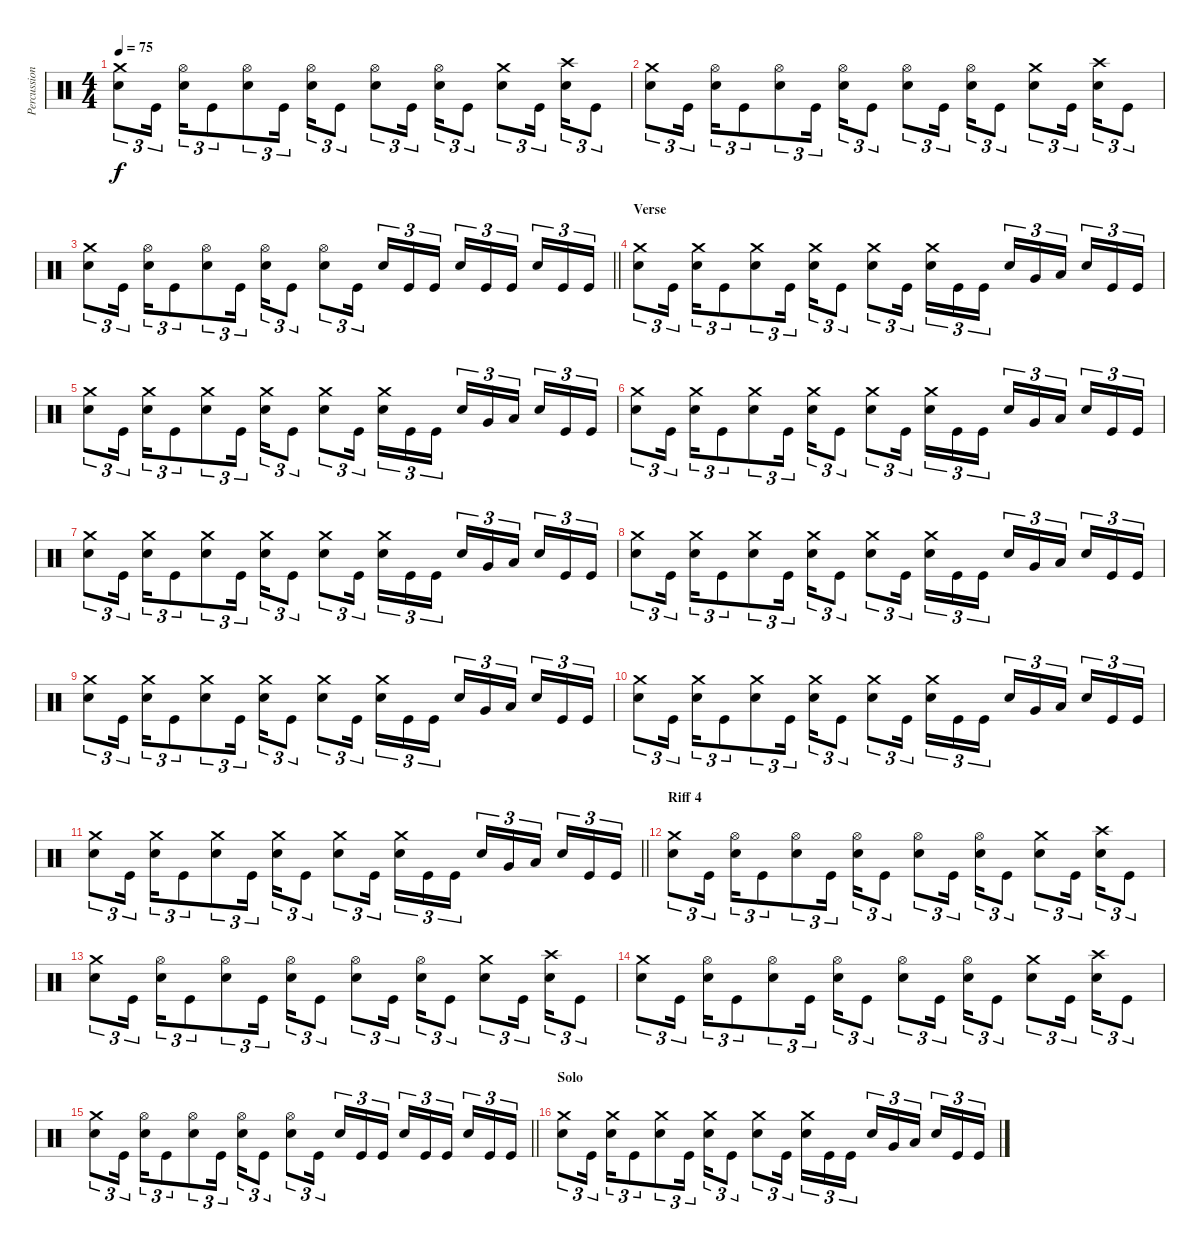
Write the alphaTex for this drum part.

\track ("Percussion" "Percussion") {instrument percussion}
\staff {score}
\articulation defaults
\ts (4 4)
\tempo 75
\clef neutral
\ks c
("Crash medium (hit)" "Snare (hit) 2").8{tu (3 2) dy f} "Kick (hit)".16{tu (3 2) beam splitsecondary} ("Hi-Hat (open)" "Snare (hit) 2").16{tu (3 2)} "Kick (hit)".8{tu (3 2) beam merge} ("Hi-Hat (open)" "Snare (hit) 2").8{tu (3 2)} "Kick (hit)".16{tu (3 2) beam splitsecondary} ("Hi-Hat (open)" "Snare (hit) 2").16{tu (3 2) beam merge} "Kick (hit)".8{tu (3 2)} ("Hi-Hat (open)" "Snare (hit) 2").8{tu (3 2)} "Kick (hit)".16{tu (3 2) beam splitsecondary} ("Hi-Hat (open)" "Snare (hit) 2").16{tu (3 2)} "Kick (hit)".8{tu (3 2)} ("Crash medium (hit)" "Snare (hit) 2").8{tu (3 2)} "Kick (hit)".16{tu (3 2) beam splitsecondary} ("Crash high (hit)" "Snare (hit) 2").16{tu (3 2)} "Kick (hit)".8{tu (3 2)} |
("Crash medium (hit)" "Snare (hit) 2").8{tu (3 2)} "Kick (hit)".16{tu (3 2) beam splitsecondary} ("Hi-Hat (open)" "Snare (hit) 2").16{tu (3 2)} "Kick (hit)".8{tu (3 2) beam merge} ("Hi-Hat (open)" "Snare (hit) 2").8{tu (3 2)} "Kick (hit)".16{tu (3 2) beam splitsecondary} ("Hi-Hat (open)" "Snare (hit) 2").16{tu (3 2) beam merge} "Kick (hit)".8{tu (3 2)} ("Hi-Hat (open)" "Snare (hit) 2").8{tu (3 2)} "Kick (hit)".16{tu (3 2) beam splitsecondary} ("Hi-Hat (open)" "Snare (hit) 2").16{tu (3 2)} "Kick (hit)".8{tu (3 2)} ("Crash medium (hit)" "Snare (hit) 2").8{tu (3 2)} "Kick (hit)".16{tu (3 2) beam splitsecondary} ("Crash high (hit)" "Snare (hit) 2").16{tu (3 2)} "Kick (hit)".8{tu (3 2)} |
\barLineRight lightlight
("Crash medium (hit)" "Snare (hit) 2").8{tu (3 2)} "Kick (hit)".16{tu (3 2) beam splitsecondary} ("Hi-Hat (open)" "Snare (hit) 2").16{tu (3 2)} "Kick (hit)".8{tu (3 2) beam merge} ("Hi-Hat (open)" "Snare (hit) 2").8{tu (3 2)} "Kick (hit)".16{tu (3 2) beam splitsecondary} ("Hi-Hat (open)" "Snare (hit) 2").16{tu (3 2) beam merge} "Kick (hit)".8{tu (3 2)} ("Hi-Hat (open)" "Snare (hit) 2").8{tu (3 2)} "Kick (hit)".16{tu (3 2) beam splitsecondary} "Snare (hit) 2".16{tu (3 2)} "Kick (hit)".16{tu (3 2)} "Kick (hit)".16{tu (3 2)} "Snare (hit) 2".16{tu (3 2)} "Kick (hit)".16{tu (3 2)} "Kick (hit)".16{tu (3 2) beam splitsecondary} "Snare (hit) 2".16{tu (3 2)} "Kick (hit)".16{tu (3 2)} "Kick (hit)".16{tu (3 2)} |
\section ("" "Verse")
("Crash medium (hit)" "Snare (hit) 2").8{tu (3 2)} "Kick (hit)".16{tu (3 2) beam splitsecondary} ("Crash medium (hit)" "Snare (hit) 2").16{tu (3 2)} "Kick (hit)".8{tu (3 2) beam merge} ("Crash medium (hit)" "Snare (hit) 2").8{tu (3 2)} "Kick (hit)".16{tu (3 2) beam splitsecondary} ("Crash medium (hit)" "Snare (hit) 2").16{tu (3 2) beam merge} "Kick (hit)".8{tu (3 2)} ("Crash medium (hit)" "Snare (hit) 2").8{tu (3 2)} "Kick (hit)".16{tu (3 2) beam splitsecondary} ("Crash medium (hit)" "Snare (hit) 2").16{tu (3 2)} "Kick (hit)".16{tu (3 2)} "Kick (hit)".16{tu (3 2)} "Snare (hit) 2".16{tu (3 2)} "Very Low Tom (hit)".16{tu (3 2)} "Low Floor Tom (hit)".16{tu (3 2) beam splitsecondary} "Snare (hit) 2".16{tu (3 2)} "Kick (hit)".16{tu (3 2)} "Kick (hit)".16{tu (3 2)} |
("Crash medium (hit)" "Snare (hit) 2").8{tu (3 2)} "Kick (hit)".16{tu (3 2) beam splitsecondary} ("Crash medium (hit)" "Snare (hit) 2").16{tu (3 2)} "Kick (hit)".8{tu (3 2) beam merge} ("Crash medium (hit)" "Snare (hit) 2").8{tu (3 2)} "Kick (hit)".16{tu (3 2) beam splitsecondary} ("Crash medium (hit)" "Snare (hit) 2").16{tu (3 2) beam merge} "Kick (hit)".8{tu (3 2)} ("Crash medium (hit)" "Snare (hit) 2").8{tu (3 2)} "Kick (hit)".16{tu (3 2) beam splitsecondary} ("Crash medium (hit)" "Snare (hit) 2").16{tu (3 2)} "Kick (hit)".16{tu (3 2)} "Kick (hit)".16{tu (3 2)} "Snare (hit) 2".16{tu (3 2)} "Very Low Tom (hit)".16{tu (3 2)} "Low Floor Tom (hit)".16{tu (3 2) beam splitsecondary} "Snare (hit) 2".16{tu (3 2)} "Kick (hit)".16{tu (3 2)} "Kick (hit)".16{tu (3 2)} |
("Crash medium (hit)" "Snare (hit) 2").8{tu (3 2)} "Kick (hit)".16{tu (3 2) beam splitsecondary} ("Crash medium (hit)" "Snare (hit) 2").16{tu (3 2)} "Kick (hit)".8{tu (3 2) beam merge} ("Crash medium (hit)" "Snare (hit) 2").8{tu (3 2)} "Kick (hit)".16{tu (3 2) beam splitsecondary} ("Crash medium (hit)" "Snare (hit) 2").16{tu (3 2) beam merge} "Kick (hit)".8{tu (3 2)} ("Crash medium (hit)" "Snare (hit) 2").8{tu (3 2)} "Kick (hit)".16{tu (3 2) beam splitsecondary} ("Crash medium (hit)" "Snare (hit) 2").16{tu (3 2)} "Kick (hit)".16{tu (3 2)} "Kick (hit)".16{tu (3 2)} "Snare (hit) 2".16{tu (3 2)} "Very Low Tom (hit)".16{tu (3 2)} "Low Floor Tom (hit)".16{tu (3 2) beam splitsecondary} "Snare (hit) 2".16{tu (3 2)} "Kick (hit)".16{tu (3 2)} "Kick (hit)".16{tu (3 2)} |
("Crash medium (hit)" "Snare (hit) 2").8{tu (3 2)} "Kick (hit)".16{tu (3 2) beam splitsecondary} ("Crash medium (hit)" "Snare (hit) 2").16{tu (3 2)} "Kick (hit)".8{tu (3 2) beam merge} ("Crash medium (hit)" "Snare (hit) 2").8{tu (3 2)} "Kick (hit)".16{tu (3 2) beam splitsecondary} ("Crash medium (hit)" "Snare (hit) 2").16{tu (3 2) beam merge} "Kick (hit)".8{tu (3 2)} ("Crash medium (hit)" "Snare (hit) 2").8{tu (3 2)} "Kick (hit)".16{tu (3 2) beam splitsecondary} ("Crash medium (hit)" "Snare (hit) 2").16{tu (3 2)} "Kick (hit)".16{tu (3 2)} "Kick (hit)".16{tu (3 2)} "Snare (hit) 2".16{tu (3 2)} "Very Low Tom (hit)".16{tu (3 2)} "Low Floor Tom (hit)".16{tu (3 2) beam splitsecondary} "Snare (hit) 2".16{tu (3 2)} "Kick (hit)".16{tu (3 2)} "Kick (hit)".16{tu (3 2)} |
("Crash medium (hit)" "Snare (hit) 2").8{tu (3 2)} "Kick (hit)".16{tu (3 2) beam splitsecondary} ("Crash medium (hit)" "Snare (hit) 2").16{tu (3 2)} "Kick (hit)".8{tu (3 2) beam merge} ("Crash medium (hit)" "Snare (hit) 2").8{tu (3 2)} "Kick (hit)".16{tu (3 2) beam splitsecondary} ("Crash medium (hit)" "Snare (hit) 2").16{tu (3 2) beam merge} "Kick (hit)".8{tu (3 2)} ("Crash medium (hit)" "Snare (hit) 2").8{tu (3 2)} "Kick (hit)".16{tu (3 2) beam splitsecondary} ("Crash medium (hit)" "Snare (hit) 2").16{tu (3 2)} "Kick (hit)".16{tu (3 2)} "Kick (hit)".16{tu (3 2)} "Snare (hit) 2".16{tu (3 2)} "Very Low Tom (hit)".16{tu (3 2)} "Low Floor Tom (hit)".16{tu (3 2) beam splitsecondary} "Snare (hit) 2".16{tu (3 2)} "Kick (hit)".16{tu (3 2)} "Kick (hit)".16{tu (3 2)} |
("Crash medium (hit)" "Snare (hit) 2").8{tu (3 2)} "Kick (hit)".16{tu (3 2) beam splitsecondary} ("Crash medium (hit)" "Snare (hit) 2").16{tu (3 2)} "Kick (hit)".8{tu (3 2) beam merge} ("Crash medium (hit)" "Snare (hit) 2").8{tu (3 2)} "Kick (hit)".16{tu (3 2) beam splitsecondary} ("Crash medium (hit)" "Snare (hit) 2").16{tu (3 2) beam merge} "Kick (hit)".8{tu (3 2)} ("Crash medium (hit)" "Snare (hit) 2").8{tu (3 2)} "Kick (hit)".16{tu (3 2) beam splitsecondary} ("Crash medium (hit)" "Snare (hit) 2").16{tu (3 2)} "Kick (hit)".16{tu (3 2)} "Kick (hit)".16{tu (3 2)} "Snare (hit) 2".16{tu (3 2)} "Very Low Tom (hit)".16{tu (3 2)} "Low Floor Tom (hit)".16{tu (3 2) beam splitsecondary} "Snare (hit) 2".16{tu (3 2)} "Kick (hit)".16{tu (3 2)} "Kick (hit)".16{tu (3 2)} |
("Crash medium (hit)" "Snare (hit) 2").8{tu (3 2)} "Kick (hit)".16{tu (3 2) beam splitsecondary} ("Crash medium (hit)" "Snare (hit) 2").16{tu (3 2)} "Kick (hit)".8{tu (3 2) beam merge} ("Crash medium (hit)" "Snare (hit) 2").8{tu (3 2)} "Kick (hit)".16{tu (3 2) beam splitsecondary} ("Crash medium (hit)" "Snare (hit) 2").16{tu (3 2) beam merge} "Kick (hit)".8{tu (3 2)} ("Crash medium (hit)" "Snare (hit) 2").8{tu (3 2)} "Kick (hit)".16{tu (3 2) beam splitsecondary} ("Crash medium (hit)" "Snare (hit) 2").16{tu (3 2)} "Kick (hit)".16{tu (3 2)} "Kick (hit)".16{tu (3 2)} "Snare (hit) 2".16{tu (3 2)} "Very Low Tom (hit)".16{tu (3 2)} "Low Floor Tom (hit)".16{tu (3 2) beam splitsecondary} "Snare (hit) 2".16{tu (3 2)} "Kick (hit)".16{tu (3 2)} "Kick (hit)".16{tu (3 2)} |
\barLineRight lightlight
("Crash medium (hit)" "Snare (hit) 2").8{tu (3 2)} "Kick (hit)".16{tu (3 2) beam splitsecondary} ("Crash medium (hit)" "Snare (hit) 2").16{tu (3 2)} "Kick (hit)".8{tu (3 2) beam merge} ("Crash medium (hit)" "Snare (hit) 2").8{tu (3 2)} "Kick (hit)".16{tu (3 2) beam splitsecondary} ("Crash medium (hit)" "Snare (hit) 2").16{tu (3 2) beam merge} "Kick (hit)".8{tu (3 2)} ("Crash medium (hit)" "Snare (hit) 2").8{tu (3 2)} "Kick (hit)".16{tu (3 2) beam splitsecondary} ("Crash medium (hit)" "Snare (hit) 2").16{tu (3 2)} "Kick (hit)".16{tu (3 2)} "Kick (hit)".16{tu (3 2)} "Snare (hit) 2".16{tu (3 2)} "Very Low Tom (hit)".16{tu (3 2)} "Low Floor Tom (hit)".16{tu (3 2) beam splitsecondary} "Snare (hit) 2".16{tu (3 2)} "Kick (hit)".16{tu (3 2)} "Kick (hit)".16{tu (3 2)} |
\section ("" "Riff 4")
("Crash medium (hit)" "Snare (hit) 2").8{tu (3 2)} "Kick (hit)".16{tu (3 2) beam splitsecondary} ("Hi-Hat (open)" "Snare (hit) 2").16{tu (3 2)} "Kick (hit)".8{tu (3 2) beam merge} ("Hi-Hat (open)" "Snare (hit) 2").8{tu (3 2)} "Kick (hit)".16{tu (3 2) beam splitsecondary} ("Hi-Hat (open)" "Snare (hit) 2").16{tu (3 2) beam merge} "Kick (hit)".8{tu (3 2)} ("Hi-Hat (open)" "Snare (hit) 2").8{tu (3 2)} "Kick (hit)".16{tu (3 2) beam splitsecondary} ("Hi-Hat (open)" "Snare (hit) 2").16{tu (3 2)} "Kick (hit)".8{tu (3 2)} ("Crash medium (hit)" "Snare (hit) 2").8{tu (3 2)} "Kick (hit)".16{tu (3 2) beam splitsecondary} ("Crash high (hit)" "Snare (hit) 2").16{tu (3 2)} "Kick (hit)".8{tu (3 2)} |
("Crash medium (hit)" "Snare (hit) 2").8{tu (3 2)} "Kick (hit)".16{tu (3 2) beam splitsecondary} ("Hi-Hat (open)" "Snare (hit) 2").16{tu (3 2)} "Kick (hit)".8{tu (3 2) beam merge} ("Hi-Hat (open)" "Snare (hit) 2").8{tu (3 2)} "Kick (hit)".16{tu (3 2) beam splitsecondary} ("Hi-Hat (open)" "Snare (hit) 2").16{tu (3 2) beam merge} "Kick (hit)".8{tu (3 2)} ("Hi-Hat (open)" "Snare (hit) 2").8{tu (3 2)} "Kick (hit)".16{tu (3 2) beam splitsecondary} ("Hi-Hat (open)" "Snare (hit) 2").16{tu (3 2)} "Kick (hit)".8{tu (3 2)} ("Crash medium (hit)" "Snare (hit) 2").8{tu (3 2)} "Kick (hit)".16{tu (3 2) beam splitsecondary} ("Crash high (hit)" "Snare (hit) 2").16{tu (3 2)} "Kick (hit)".8{tu (3 2)} |
("Crash medium (hit)" "Snare (hit) 2").8{tu (3 2)} "Kick (hit)".16{tu (3 2) beam splitsecondary} ("Hi-Hat (open)" "Snare (hit) 2").16{tu (3 2)} "Kick (hit)".8{tu (3 2) beam merge} ("Hi-Hat (open)" "Snare (hit) 2").8{tu (3 2)} "Kick (hit)".16{tu (3 2) beam splitsecondary} ("Hi-Hat (open)" "Snare (hit) 2").16{tu (3 2) beam merge} "Kick (hit)".8{tu (3 2)} ("Hi-Hat (open)" "Snare (hit) 2").8{tu (3 2)} "Kick (hit)".16{tu (3 2) beam splitsecondary} ("Hi-Hat (open)" "Snare (hit) 2").16{tu (3 2)} "Kick (hit)".8{tu (3 2)} ("Crash medium (hit)" "Snare (hit) 2").8{tu (3 2)} "Kick (hit)".16{tu (3 2) beam splitsecondary} ("Crash high (hit)" "Snare (hit) 2").16{tu (3 2)} "Kick (hit)".8{tu (3 2)} |
\barLineRight lightlight
("Crash medium (hit)" "Snare (hit) 2").8{tu (3 2)} "Kick (hit)".16{tu (3 2) beam splitsecondary} ("Hi-Hat (open)" "Snare (hit) 2").16{tu (3 2)} "Kick (hit)".8{tu (3 2) beam merge} ("Hi-Hat (open)" "Snare (hit) 2").8{tu (3 2)} "Kick (hit)".16{tu (3 2) beam splitsecondary} ("Hi-Hat (open)" "Snare (hit) 2").16{tu (3 2) beam merge} "Kick (hit)".8{tu (3 2)} ("Hi-Hat (open)" "Snare (hit) 2").8{tu (3 2)} "Kick (hit)".16{tu (3 2) beam splitsecondary} "Snare (hit) 2".16{tu (3 2)} "Kick (hit)".16{tu (3 2)} "Kick (hit)".16{tu (3 2)} "Snare (hit) 2".16{tu (3 2)} "Kick (hit)".16{tu (3 2)} "Kick (hit)".16{tu (3 2) beam splitsecondary} "Snare (hit) 2".16{tu (3 2)} "Kick (hit)".16{tu (3 2)} "Kick (hit)".16{tu (3 2)} |
\section ("" "Solo")
("Crash medium (hit)" "Snare (hit) 2").8{tu (3 2)} "Kick (hit)".16{tu (3 2) beam splitsecondary} ("Crash medium (hit)" "Snare (hit) 2").16{tu (3 2)} "Kick (hit)".8{tu (3 2) beam merge} ("Crash medium (hit)" "Snare (hit) 2").8{tu (3 2)} "Kick (hit)".16{tu (3 2) beam splitsecondary} ("Crash medium (hit)" "Snare (hit) 2").16{tu (3 2) beam merge} "Kick (hit)".8{tu (3 2)} ("Crash medium (hit)" "Snare (hit) 2").8{tu (3 2)} "Kick (hit)".16{tu (3 2) beam splitsecondary} ("Crash medium (hit)" "Snare (hit) 2").16{tu (3 2)} "Kick (hit)".16{tu (3 2)} "Kick (hit)".16{tu (3 2)} "Snare (hit) 2".16{tu (3 2)} "Very Low Tom (hit)".16{tu (3 2)} "Low Floor Tom (hit)".16{tu (3 2) beam splitsecondary} "Snare (hit) 2".16{tu (3 2)} "Kick (hit)".16{tu (3 2)} "Kick (hit)".16{tu (3 2)}
